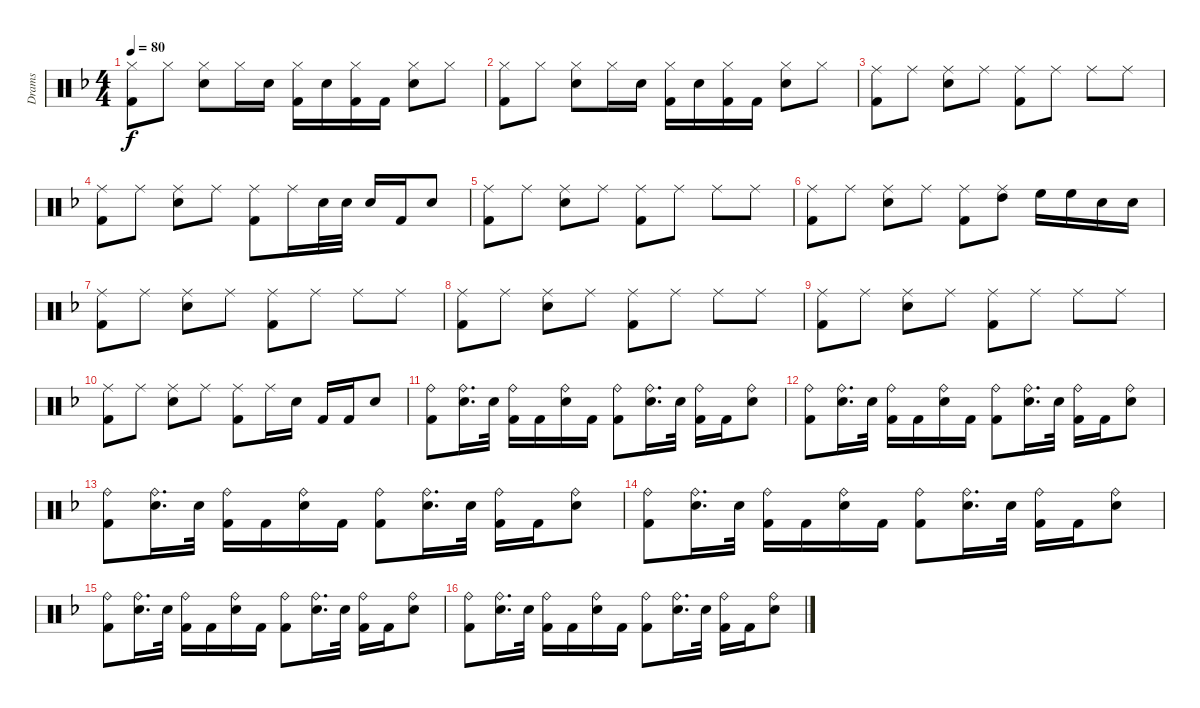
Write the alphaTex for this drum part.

\track ("Drams" "Drams") {instrument percussion}
\staff {score}
\articulation defaults
\ts (4 4)
\tempo 80
\clef neutral
\ks dminor
("Kick (hit) 2" "Hi-Hat (closed)").8{dy f} "Hi-Hat (closed)".8 ("Electric Snare (hit)" "Hi-Hat (closed)").8 "Hi-Hat (closed)".16 "Electric Snare (hit)".16 ("Kick (hit) 2" "Hi-Hat (closed)").16 "Electric Snare (hit)".16 ("Kick (hit) 2" "Hi-Hat (closed)").16 "Kick (hit) 2".16 ("Electric Snare (hit)" "Hi-Hat (closed)").8 "Hi-Hat (closed)".8 |
("Kick (hit) 2" "Hi-Hat (closed)").8 "Hi-Hat (closed)".8 ("Electric Snare (hit)" "Hi-Hat (closed)").8 "Hi-Hat (closed)".16 "Electric Snare (hit)".16 ("Kick (hit) 2" "Hi-Hat (closed)").16 "Electric Snare (hit)".16 ("Kick (hit) 2" "Hi-Hat (closed)").16 "Kick (hit) 2".16 ("Electric Snare (hit)" "Hi-Hat (closed)").8 "Hi-Hat (closed)".8 |
("Ride (middle)" "Kick (hit) 2").8 "Ride (middle)".8 ("Ride (middle)" "Electric Snare (hit)").8 "Ride (middle)".8 ("Ride (middle)" "Kick (hit) 2").8 "Ride (middle)".8 "Ride (middle)".8 "Ride (middle)".8 |
("Ride (middle)" "Kick (hit) 2").8 "Ride (middle)".8 ("Ride (middle)" "Electric Snare (hit)").8 "Ride (middle)".8 ("Ride (middle)" "Kick (hit) 2").8 "Ride (middle)".16 "Electric Snare (hit)".32 "Electric Snare (hit)".32 "Electric Snare (hit)".16 "Kick (hit) 2".16 "Electric Snare (hit)".8 |
("Ride (middle)" "Kick (hit) 2").8 "Ride (middle)".8 ("Ride (middle)" "Electric Snare (hit)").8 "Ride (middle)".8 ("Ride (middle)" "Kick (hit) 2").8 "Ride (middle)".8 "Ride (middle)".8 "Ride (middle)".8 |
("Ride (middle)" "Kick (hit) 2").8 "Ride (middle)".8 ("Ride (middle)" "Electric Snare (hit)").8 "Ride (middle)".8 ("Ride (middle)" "Kick (hit) 2").8 ("High Tom (hit)" "Ride (middle)").8 "High Floor Tom (hit)".16 "High Floor Tom (hit)".16 "Electric Snare (hit)".16 "Electric Snare (hit)".16 |
("Ride (middle)" "Kick (hit) 2").8 "Ride (middle)".8 ("Ride (middle)" "Electric Snare (hit)").8 "Ride (middle)".8 ("Ride (middle)" "Kick (hit) 2").8 "Ride (middle)".8 "Ride (middle)".8 "Ride (middle)".8 |
("Ride (middle)" "Kick (hit) 2").8 "Ride (middle)".8 ("Ride (middle)" "Electric Snare (hit)").8 "Ride (middle)".8 ("Ride (middle)" "Kick (hit) 2").8 "Ride (middle)".8 "Ride (middle)".8 "Ride (middle)".8 |
("Ride (middle)" "Kick (hit) 2").8 "Ride (middle)".8 ("Ride (middle)" "Electric Snare (hit)").8 "Ride (middle)".8 ("Ride (middle)" "Kick (hit) 2").8 "Ride (middle)".8 "Ride (middle)".8 "Ride (middle)".8 |
("Ride (middle)" "Kick (hit) 2").8 "Ride (middle)".8 ("Ride (middle)" "Electric Snare (hit)").8 "Ride (middle)".8 ("Ride (middle)" "Kick (hit) 2").8 "Ride (middle)".16 "Electric Snare (hit)".16 "Kick (hit) 2".16 "Kick (hit) 2".16 "Electric Snare (hit)".8 |
("Kick (hit) 2" "Ride (bell)").8 ("Ride (bell)" "Electric Snare (hit)").16{d} "Electric Snare (hit)".32 ("Ride (bell)" "Kick (hit) 2").16 "Kick (hit) 2".16 ("Ride (bell)" "Electric Snare (hit)").16 "Kick (hit) 2".16 ("Kick (hit) 2" "Ride (bell)").8 ("Electric Snare (hit)" "Ride (bell)").16{d} "Electric Snare (hit)".32 ("Kick (hit) 2" "Ride (bell)").16 "Kick (hit) 2".16 ("Electric Snare (hit)" "Ride (bell)").8 |
("Kick (hit) 2" "Ride (bell)").8 ("Ride (bell)" "Electric Snare (hit)").16{d} "Electric Snare (hit)".32 ("Ride (bell)" "Kick (hit) 2").16 "Kick (hit) 2".16 ("Ride (bell)" "Electric Snare (hit)").16 "Kick (hit) 2".16 ("Kick (hit) 2" "Ride (bell)").8 ("Electric Snare (hit)" "Ride (bell)").16{d} "Electric Snare (hit)".32 ("Kick (hit) 2" "Ride (bell)").16 "Kick (hit) 2".16 ("Electric Snare (hit)" "Ride (bell)").8 |
("Kick (hit) 2" "Ride (bell)").8 ("Ride (bell)" "Electric Snare (hit)").16{d} "Electric Snare (hit)".32 ("Ride (bell)" "Kick (hit) 2").16 "Kick (hit) 2".16 ("Ride (bell)" "Electric Snare (hit)").16 "Kick (hit) 2".16 ("Kick (hit) 2" "Ride (bell)").8 ("Electric Snare (hit)" "Ride (bell)").16{d} "Electric Snare (hit)".32 ("Kick (hit) 2" "Ride (bell)").16 "Kick (hit) 2".16 ("Electric Snare (hit)" "Ride (bell)").8 |
("Kick (hit) 2" "Ride (bell)").8 ("Ride (bell)" "Electric Snare (hit)").16{d} "Electric Snare (hit)".32 ("Ride (bell)" "Kick (hit) 2").16 "Kick (hit) 2".16 ("Ride (bell)" "Electric Snare (hit)").16 "Kick (hit) 2".16 ("Kick (hit) 2" "Ride (bell)").8 ("Electric Snare (hit)" "Ride (bell)").16{d} "Electric Snare (hit)".32 ("Kick (hit) 2" "Ride (bell)").16 "Kick (hit) 2".16 ("Electric Snare (hit)" "Ride (bell)").8 |
("Kick (hit) 2" "Ride (bell)").8 ("Ride (bell)" "Electric Snare (hit)").16{d} "Electric Snare (hit)".32 ("Ride (bell)" "Kick (hit) 2").16 "Kick (hit) 2".16 ("Ride (bell)" "Electric Snare (hit)").16 "Kick (hit) 2".16 ("Kick (hit) 2" "Ride (bell)").8 ("Electric Snare (hit)" "Ride (bell)").16{d} "Electric Snare (hit)".32 ("Kick (hit) 2" "Ride (bell)").16 "Kick (hit) 2".16 ("Electric Snare (hit)" "Ride (bell)").8 |
("Kick (hit) 2" "Ride (bell)").8 ("Ride (bell)" "Electric Snare (hit)").16{d} "Electric Snare (hit)".32 ("Ride (bell)" "Kick (hit) 2").16 "Kick (hit) 2".16 ("Ride (bell)" "Electric Snare (hit)").16 "Kick (hit) 2".16 ("Kick (hit) 2" "Ride (bell)").8 ("Electric Snare (hit)" "Ride (bell)").16{d} "Electric Snare (hit)".32 ("Kick (hit) 2" "Ride (bell)").16 "Kick (hit) 2".16 ("Electric Snare (hit)" "Ride (bell)").8
